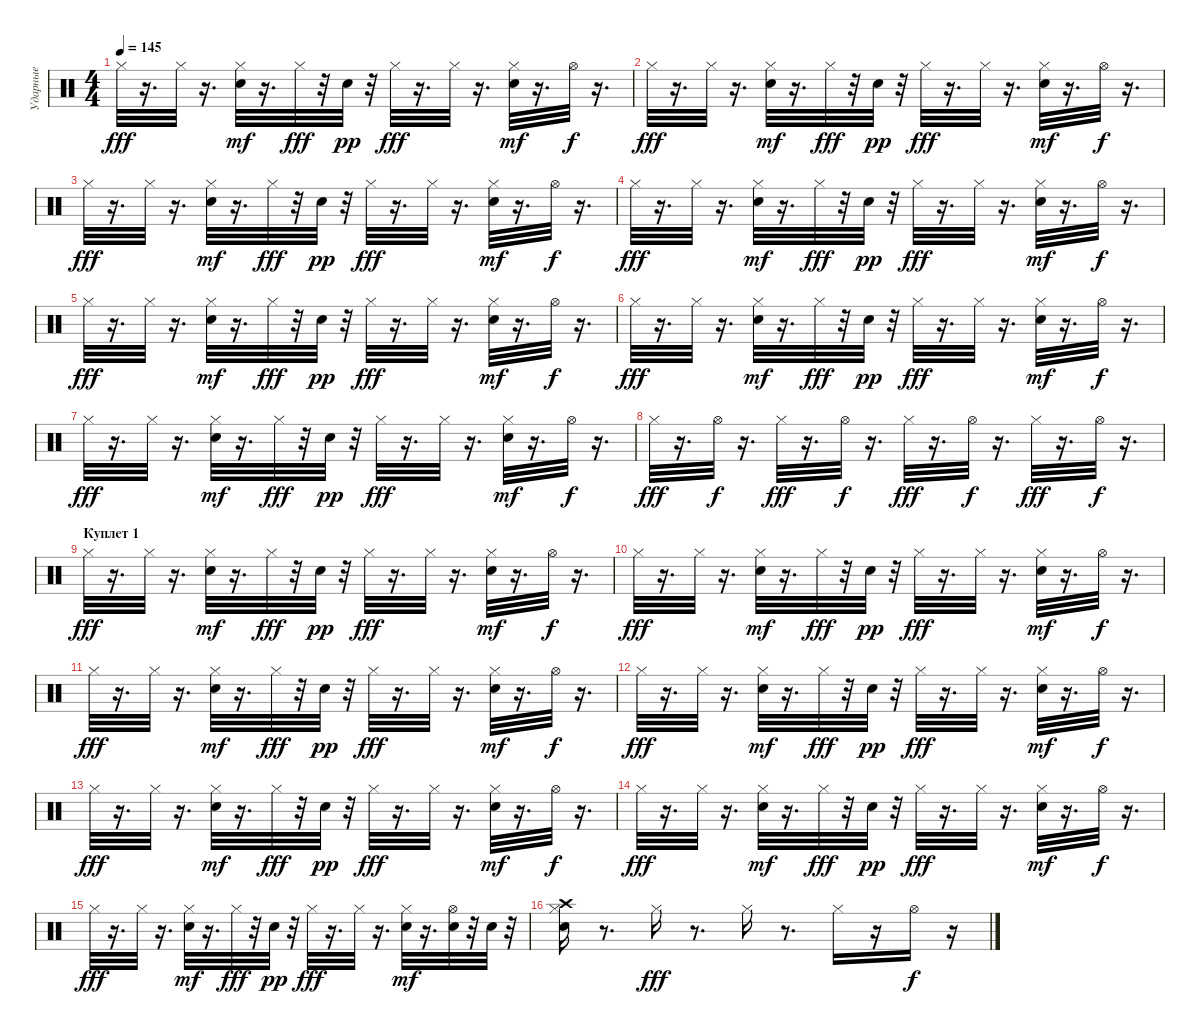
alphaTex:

\track ("Ударные" "Ударные") {instrument percussion}
\staff {score}
\articulation defaults
\ts (4 4)
\tempo 145
\clef neutral
\ks c "Hi-Hat (closed)".32{dy fff}
r.16{d} "Hi-Hat (closed)".32 r.16{d} ("Hi-Hat (closed)" "Electric Snare (hit)").32{dy mf} r.16{d} "Hi-Hat (closed)".32{dy fff} r.32 "Electric Snare (hit)".32{dy pp} r.32 "Hi-Hat (closed)".32{dy fff} r.16{d} "Hi-Hat (closed)".32 r.16{d} ("Hi-Hat (closed)" "Electric Snare (hit)").32{dy mf} r.16{d} "Hi-Hat (open)".32{dy f} r.16{d} |
"Hi-Hat (closed)".32{dy fff} r.16{d} "Hi-Hat (closed)".32 r.16{d} ("Hi-Hat (closed)" "Electric Snare (hit)").32{dy mf} r.16{d} "Hi-Hat (closed)".32{dy fff} r.32 "Electric Snare (hit)".32{dy pp} r.32 "Hi-Hat (closed)".32{dy fff} r.16{d} "Hi-Hat (closed)".32 r.16{d} ("Hi-Hat (closed)" "Electric Snare (hit)").32{dy mf} r.16{d} "Hi-Hat (open)".32{dy f} r.16{d} |
"Hi-Hat (closed)".32{dy fff} r.16{d} "Hi-Hat (closed)".32 r.16{d} ("Hi-Hat (closed)" "Electric Snare (hit)").32{dy mf} r.16{d} "Hi-Hat (closed)".32{dy fff} r.32 "Electric Snare (hit)".32{dy pp} r.32 "Hi-Hat (closed)".32{dy fff} r.16{d} "Hi-Hat (closed)".32 r.16{d} ("Hi-Hat (closed)" "Electric Snare (hit)").32{dy mf} r.16{d} "Hi-Hat (open)".32{dy f} r.16{d} |
"Hi-Hat (closed)".32{dy fff} r.16{d} "Hi-Hat (closed)".32 r.16{d} ("Hi-Hat (closed)" "Electric Snare (hit)").32{dy mf} r.16{d} "Hi-Hat (closed)".32{dy fff} r.32 "Electric Snare (hit)".32{dy pp} r.32 "Hi-Hat (closed)".32{dy fff} r.16{d} "Hi-Hat (closed)".32 r.16{d} ("Hi-Hat (closed)" "Electric Snare (hit)").32{dy mf} r.16{d} "Hi-Hat (open)".32{dy f} r.16{d} |
"Hi-Hat (closed)".32{dy fff} r.16{d} "Hi-Hat (closed)".32 r.16{d} ("Hi-Hat (closed)" "Electric Snare (hit)").32{dy mf} r.16{d} "Hi-Hat (closed)".32{dy fff} r.32 "Electric Snare (hit)".32{dy pp} r.32 "Hi-Hat (closed)".32{dy fff} r.16{d} "Hi-Hat (closed)".32 r.16{d} ("Hi-Hat (closed)" "Electric Snare (hit)").32{dy mf} r.16{d} "Hi-Hat (open)".32{dy f} r.16{d} |
"Hi-Hat (closed)".32{dy fff} r.16{d} "Hi-Hat (closed)".32 r.16{d} ("Hi-Hat (closed)" "Electric Snare (hit)").32{dy mf} r.16{d} "Hi-Hat (closed)".32{dy fff} r.32 "Electric Snare (hit)".32{dy pp} r.32 "Hi-Hat (closed)".32{dy fff} r.16{d} "Hi-Hat (closed)".32 r.16{d} ("Hi-Hat (closed)" "Electric Snare (hit)").32{dy mf} r.16{d} "Hi-Hat (open)".32{dy f} r.16{d} |
"Hi-Hat (closed)".32{dy fff} r.16{d} "Hi-Hat (closed)".32 r.16{d} ("Hi-Hat (closed)" "Electric Snare (hit)").32{dy mf} r.16{d} "Hi-Hat (closed)".32{dy fff} r.32 "Electric Snare (hit)".32{dy pp} r.32 "Hi-Hat (closed)".32{dy fff} r.16{d} "Hi-Hat (closed)".32 r.16{d} ("Hi-Hat (closed)" "Electric Snare (hit)").32{dy mf} r.16{d} "Hi-Hat (open)".32{dy f} r.16{d} |
"Hi-Hat (closed)".32{dy fff} r.16{d} "Hi-Hat (open)".32{dy f} r.16{d} "Hi-Hat (closed)".32{dy fff} r.16{d} "Hi-Hat (open)".32{dy f} r.16{d} "Hi-Hat (closed)".32{dy fff} r.16{d} "Hi-Hat (open)".32{dy f} r.16{d} "Hi-Hat (closed)".32{dy fff} r.16{d} "Hi-Hat (open)".32{dy f} r.16{d} |
\section ("" "Куплет 1")
"Hi-Hat (closed)".32{dy fff} r.16{d} "Hi-Hat (closed)".32 r.16{d} ("Hi-Hat (closed)" "Electric Snare (hit)").32{dy mf} r.16{d} "Hi-Hat (closed)".32{dy fff} r.32 "Electric Snare (hit)".32{dy pp} r.32 "Hi-Hat (closed)".32{dy fff} r.16{d} "Hi-Hat (closed)".32 r.16{d} ("Hi-Hat (closed)" "Electric Snare (hit)").32{dy mf} r.16{d} "Hi-Hat (open)".32{dy f} r.16{d} |
"Hi-Hat (closed)".32{dy fff} r.16{d} "Hi-Hat (closed)".32 r.16{d} ("Hi-Hat (closed)" "Electric Snare (hit)").32{dy mf} r.16{d} "Hi-Hat (closed)".32{dy fff} r.32 "Electric Snare (hit)".32{dy pp} r.32 "Hi-Hat (closed)".32{dy fff} r.16{d} "Hi-Hat (closed)".32 r.16{d} ("Hi-Hat (closed)" "Electric Snare (hit)").32{dy mf} r.16{d} "Hi-Hat (open)".32{dy f} r.16{d} |
"Hi-Hat (closed)".32{dy fff} r.16{d} "Hi-Hat (closed)".32 r.16{d} ("Hi-Hat (closed)" "Electric Snare (hit)").32{dy mf} r.16{d} "Hi-Hat (closed)".32{dy fff} r.32 "Electric Snare (hit)".32{dy pp} r.32 "Hi-Hat (closed)".32{dy fff} r.16{d} "Hi-Hat (closed)".32 r.16{d} ("Hi-Hat (closed)" "Electric Snare (hit)").32{dy mf} r.16{d} "Hi-Hat (open)".32{dy f} r.16{d} |
"Hi-Hat (closed)".32{dy fff} r.16{d} "Hi-Hat (closed)".32 r.16{d} ("Hi-Hat (closed)" "Electric Snare (hit)").32{dy mf} r.16{d} "Hi-Hat (closed)".32{dy fff} r.32 "Electric Snare (hit)".32{dy pp} r.32 "Hi-Hat (closed)".32{dy fff} r.16{d} "Hi-Hat (closed)".32 r.16{d} ("Hi-Hat (closed)" "Electric Snare (hit)").32{dy mf} r.16{d} "Hi-Hat (open)".32{dy f} r.16{d} |
"Hi-Hat (closed)".32{dy fff} r.16{d} "Hi-Hat (closed)".32 r.16{d} ("Hi-Hat (closed)" "Electric Snare (hit)").32{dy mf} r.16{d} "Hi-Hat (closed)".32{dy fff} r.32 "Electric Snare (hit)".32{dy pp} r.32 "Hi-Hat (closed)".32{dy fff} r.16{d} "Hi-Hat (closed)".32 r.16{d} ("Hi-Hat (closed)" "Electric Snare (hit)").32{dy mf} r.16{d} "Hi-Hat (open)".32{dy f} r.16{d} |
"Hi-Hat (closed)".32{dy fff} r.16{d} "Hi-Hat (closed)".32 r.16{d} ("Hi-Hat (closed)" "Electric Snare (hit)").32{dy mf} r.16{d} "Hi-Hat (closed)".32{dy fff} r.32 "Electric Snare (hit)".32{dy pp} r.32 "Hi-Hat (closed)".32{dy fff} r.16{d} "Hi-Hat (closed)".32 r.16{d} ("Hi-Hat (closed)" "Electric Snare (hit)").32{dy mf} r.16{d} "Hi-Hat (open)".32{dy f} r.16{d} |
"Hi-Hat (closed)".32{dy fff} r.16{d} "Hi-Hat (closed)".32 r.16{d} ("Hi-Hat (closed)" "Electric Snare (hit)").32{dy mf} r.16{d} "Hi-Hat (closed)".32{dy fff} r.32 "Electric Snare (hit)".32{dy pp} r.32 "Hi-Hat (closed)".32{dy fff} r.16{d} "Hi-Hat (closed)".32 r.16{d} ("Hi-Hat (closed)" "Electric Snare (hit)").32{dy mf} r.16{d} ("Electric Snare (hit)" "Hi-Hat (open)").32 r.32 "Electric Snare (hit)".32 r.32 |
("Crash high (hit)" "Hi-Hat (closed)" "Electric Snare (hit)").16 r.8{d} "Hi-Hat (closed)".16{dy fff} r.8{d} "Hi-Hat (closed)".16 r.8{d} "Hi-Hat (closed)".16 r.16 "Hi-Hat (open)".16{dy f} r.16
